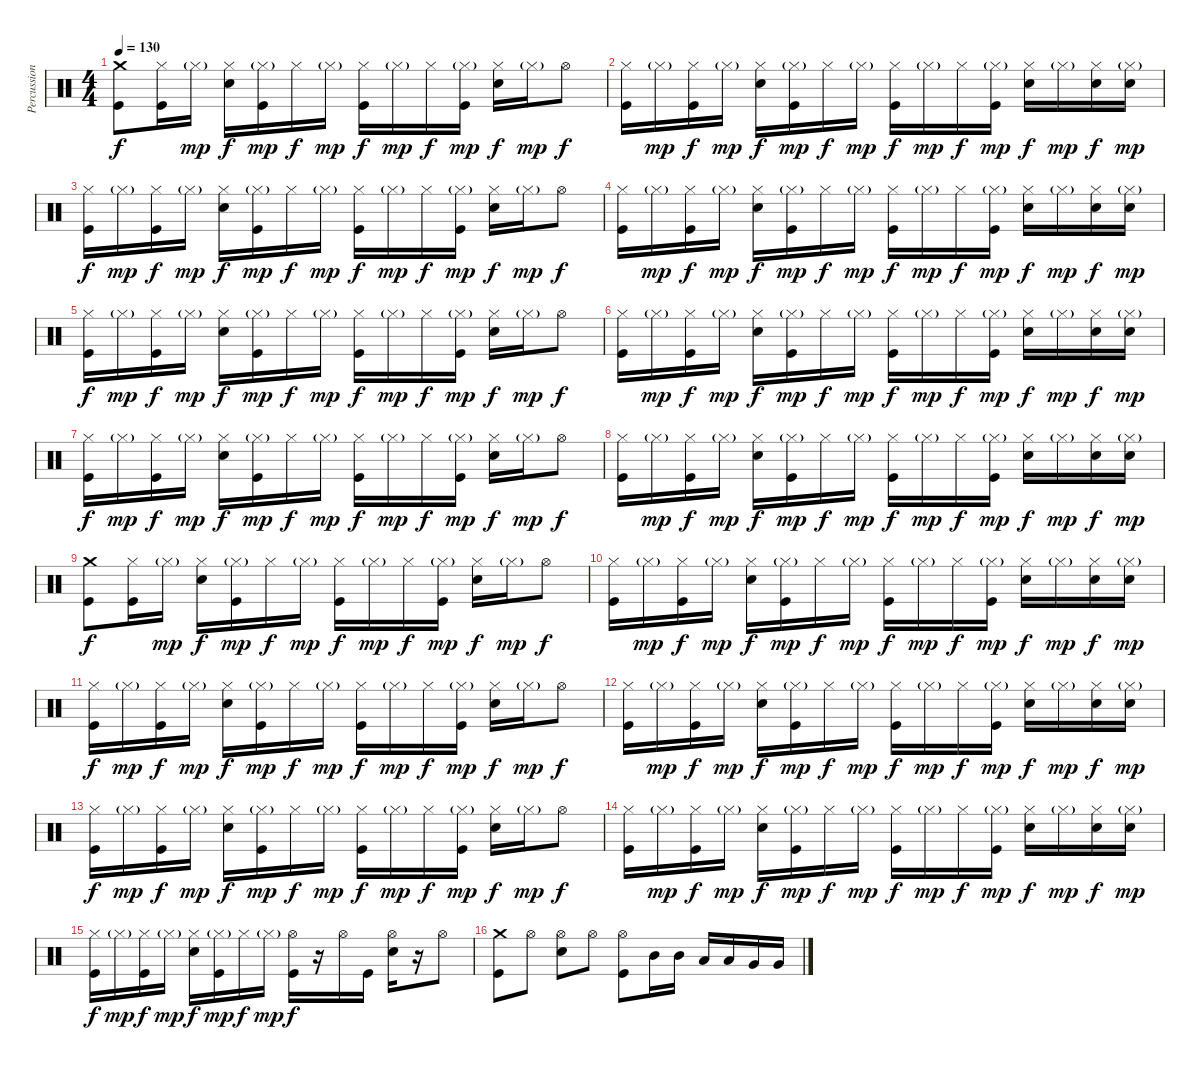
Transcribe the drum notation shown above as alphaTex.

\track ("Percussion" "Percussion") {instrument percussion}
\staff {score}
\articulation defaults
\ts (4 4)
\tempo 130
\clef neutral
\ks c
("Crash medium (hit)" "Kick (hit)").8{dy f} ("Hi-Hat (closed)" "Kick (hit)").16 "Hi-Hat (closed)"{g}.16{dy mp} ("Hi-Hat (closed)" "Electric Snare (hit)").16{dy f} ("Hi-Hat (closed)"{g} "Kick (hit)").16{dy mp} "Hi-Hat (closed)".16{dy f} "Hi-Hat (closed)"{g}.16{dy mp} ("Hi-Hat (closed)" "Kick (hit)").16{dy f} "Hi-Hat (closed)"{g}.16{dy mp} "Hi-Hat (closed)".16{dy f} ("Hi-Hat (closed)"{g} "Kick (hit)").16{dy mp} ("Hi-Hat (closed)" "Electric Snare (hit)").16{dy f} "Hi-Hat (closed)"{g}.16{dy mp} "Hi-Hat (open)".8{dy f} |
("Hi-Hat (closed)" "Kick (hit)").16 "Hi-Hat (closed)"{g}.16{dy mp} ("Hi-Hat (closed)" "Kick (hit)").16{dy f} "Hi-Hat (closed)"{g}.16{dy mp} ("Hi-Hat (closed)" "Electric Snare (hit)").16{dy f} ("Hi-Hat (closed)"{g} "Kick (hit)").16{dy mp} "Hi-Hat (closed)".16{dy f} "Hi-Hat (closed)"{g}.16{dy mp} ("Hi-Hat (closed)" "Kick (hit)").16{dy f} "Hi-Hat (closed)"{g}.16{dy mp} "Hi-Hat (closed)".16{dy f} ("Hi-Hat (closed)"{g} "Kick (hit)").16{dy mp} ("Hi-Hat (closed)" "Electric Snare (hit)").16{dy f} "Hi-Hat (closed)"{g}.16{dy mp} ("Hi-Hat (closed)" "Electric Snare (hit)").16{dy f} ("Hi-Hat (closed)"{g} "Electric Snare (hit)").16{dy mp} |
("Hi-Hat (closed)" "Kick (hit)").16{dy f} "Hi-Hat (closed)"{g}.16{dy mp} ("Hi-Hat (closed)" "Kick (hit)").16{dy f} "Hi-Hat (closed)"{g}.16{dy mp} ("Hi-Hat (closed)" "Electric Snare (hit)").16{dy f} ("Hi-Hat (closed)"{g} "Kick (hit)").16{dy mp} "Hi-Hat (closed)".16{dy f} "Hi-Hat (closed)"{g}.16{dy mp} ("Hi-Hat (closed)" "Kick (hit)").16{dy f} "Hi-Hat (closed)"{g}.16{dy mp} "Hi-Hat (closed)".16{dy f} ("Hi-Hat (closed)"{g} "Kick (hit)").16{dy mp} ("Hi-Hat (closed)" "Electric Snare (hit)").16{dy f} "Hi-Hat (closed)"{g}.16{dy mp} "Hi-Hat (open)".8{dy f} |
("Hi-Hat (closed)" "Kick (hit)").16 "Hi-Hat (closed)"{g}.16{dy mp} ("Hi-Hat (closed)" "Kick (hit)").16{dy f} "Hi-Hat (closed)"{g}.16{dy mp} ("Hi-Hat (closed)" "Electric Snare (hit)").16{dy f} ("Hi-Hat (closed)"{g} "Kick (hit)").16{dy mp} "Hi-Hat (closed)".16{dy f} "Hi-Hat (closed)"{g}.16{dy mp} ("Hi-Hat (closed)" "Kick (hit)").16{dy f} "Hi-Hat (closed)"{g}.16{dy mp} "Hi-Hat (closed)".16{dy f} ("Hi-Hat (closed)"{g} "Kick (hit)").16{dy mp} ("Hi-Hat (closed)" "Electric Snare (hit)").16{dy f} "Hi-Hat (closed)"{g}.16{dy mp} ("Hi-Hat (closed)" "Electric Snare (hit)").16{dy f} ("Hi-Hat (closed)"{g} "Electric Snare (hit)").16{dy mp} |
("Hi-Hat (closed)" "Kick (hit)").16{dy f} "Hi-Hat (closed)"{g}.16{dy mp} ("Hi-Hat (closed)" "Kick (hit)").16{dy f} "Hi-Hat (closed)"{g}.16{dy mp} ("Hi-Hat (closed)" "Electric Snare (hit)").16{dy f} ("Hi-Hat (closed)"{g} "Kick (hit)").16{dy mp} "Hi-Hat (closed)".16{dy f} "Hi-Hat (closed)"{g}.16{dy mp} ("Hi-Hat (closed)" "Kick (hit)").16{dy f} "Hi-Hat (closed)"{g}.16{dy mp} "Hi-Hat (closed)".16{dy f} ("Hi-Hat (closed)"{g} "Kick (hit)").16{dy mp} ("Hi-Hat (closed)" "Electric Snare (hit)").16{dy f} "Hi-Hat (closed)"{g}.16{dy mp} "Hi-Hat (open)".8{dy f} |
("Hi-Hat (closed)" "Kick (hit)").16 "Hi-Hat (closed)"{g}.16{dy mp} ("Hi-Hat (closed)" "Kick (hit)").16{dy f} "Hi-Hat (closed)"{g}.16{dy mp} ("Hi-Hat (closed)" "Electric Snare (hit)").16{dy f} ("Hi-Hat (closed)"{g} "Kick (hit)").16{dy mp} "Hi-Hat (closed)".16{dy f} "Hi-Hat (closed)"{g}.16{dy mp} ("Hi-Hat (closed)" "Kick (hit)").16{dy f} "Hi-Hat (closed)"{g}.16{dy mp} "Hi-Hat (closed)".16{dy f} ("Hi-Hat (closed)"{g} "Kick (hit)").16{dy mp} ("Hi-Hat (closed)" "Electric Snare (hit)").16{dy f} "Hi-Hat (closed)"{g}.16{dy mp} ("Hi-Hat (closed)" "Electric Snare (hit)").16{dy f} ("Hi-Hat (closed)"{g} "Electric Snare (hit)").16{dy mp} |
("Hi-Hat (closed)" "Kick (hit)").16{dy f} "Hi-Hat (closed)"{g}.16{dy mp} ("Hi-Hat (closed)" "Kick (hit)").16{dy f} "Hi-Hat (closed)"{g}.16{dy mp} ("Hi-Hat (closed)" "Electric Snare (hit)").16{dy f} ("Hi-Hat (closed)"{g} "Kick (hit)").16{dy mp} "Hi-Hat (closed)".16{dy f} "Hi-Hat (closed)"{g}.16{dy mp} ("Hi-Hat (closed)" "Kick (hit)").16{dy f} "Hi-Hat (closed)"{g}.16{dy mp} "Hi-Hat (closed)".16{dy f} ("Hi-Hat (closed)"{g} "Kick (hit)").16{dy mp} ("Hi-Hat (closed)" "Electric Snare (hit)").16{dy f} "Hi-Hat (closed)"{g}.16{dy mp} "Hi-Hat (open)".8{dy f} |
("Hi-Hat (closed)" "Kick (hit)").16 "Hi-Hat (closed)"{g}.16{dy mp} ("Hi-Hat (closed)" "Kick (hit)").16{dy f} "Hi-Hat (closed)"{g}.16{dy mp} ("Hi-Hat (closed)" "Electric Snare (hit)").16{dy f} ("Hi-Hat (closed)"{g} "Kick (hit)").16{dy mp} "Hi-Hat (closed)".16{dy f} "Hi-Hat (closed)"{g}.16{dy mp} ("Hi-Hat (closed)" "Kick (hit)").16{dy f} "Hi-Hat (closed)"{g}.16{dy mp} "Hi-Hat (closed)".16{dy f} ("Hi-Hat (closed)"{g} "Kick (hit)").16{dy mp} ("Hi-Hat (closed)" "Electric Snare (hit)").16{dy f} "Hi-Hat (closed)"{g}.16{dy mp} ("Hi-Hat (closed)" "Electric Snare (hit)").16{dy f} ("Hi-Hat (closed)"{g} "Electric Snare (hit)").16{dy mp} |
("Crash medium (hit)" "Kick (hit)").8{dy f} ("Hi-Hat (closed)" "Kick (hit)").16 "Hi-Hat (closed)"{g}.16{dy mp} ("Hi-Hat (closed)" "Electric Snare (hit)").16{dy f} ("Hi-Hat (closed)"{g} "Kick (hit)").16{dy mp} "Hi-Hat (closed)".16{dy f} "Hi-Hat (closed)"{g}.16{dy mp} ("Hi-Hat (closed)" "Kick (hit)").16{dy f} "Hi-Hat (closed)"{g}.16{dy mp} "Hi-Hat (closed)".16{dy f} ("Hi-Hat (closed)"{g} "Kick (hit)").16{dy mp} ("Hi-Hat (closed)" "Electric Snare (hit)").16{dy f} "Hi-Hat (closed)"{g}.16{dy mp} "Hi-Hat (open)".8{dy f} |
("Hi-Hat (closed)" "Kick (hit)").16 "Hi-Hat (closed)"{g}.16{dy mp} ("Hi-Hat (closed)" "Kick (hit)").16{dy f} "Hi-Hat (closed)"{g}.16{dy mp} ("Hi-Hat (closed)" "Electric Snare (hit)").16{dy f} ("Hi-Hat (closed)"{g} "Kick (hit)").16{dy mp} "Hi-Hat (closed)".16{dy f} "Hi-Hat (closed)"{g}.16{dy mp} ("Hi-Hat (closed)" "Kick (hit)").16{dy f} "Hi-Hat (closed)"{g}.16{dy mp} "Hi-Hat (closed)".16{dy f} ("Hi-Hat (closed)"{g} "Kick (hit)").16{dy mp} ("Hi-Hat (closed)" "Electric Snare (hit)").16{dy f} "Hi-Hat (closed)"{g}.16{dy mp} ("Hi-Hat (closed)" "Electric Snare (hit)").16{dy f} ("Hi-Hat (closed)"{g} "Electric Snare (hit)").16{dy mp} |
("Hi-Hat (closed)" "Kick (hit)").16{dy f} "Hi-Hat (closed)"{g}.16{dy mp} ("Hi-Hat (closed)" "Kick (hit)").16{dy f} "Hi-Hat (closed)"{g}.16{dy mp} ("Hi-Hat (closed)" "Electric Snare (hit)").16{dy f} ("Hi-Hat (closed)"{g} "Kick (hit)").16{dy mp} "Hi-Hat (closed)".16{dy f} "Hi-Hat (closed)"{g}.16{dy mp} ("Hi-Hat (closed)" "Kick (hit)").16{dy f} "Hi-Hat (closed)"{g}.16{dy mp} "Hi-Hat (closed)".16{dy f} ("Hi-Hat (closed)"{g} "Kick (hit)").16{dy mp} ("Hi-Hat (closed)" "Electric Snare (hit)").16{dy f} "Hi-Hat (closed)"{g}.16{dy mp} "Hi-Hat (open)".8{dy f} |
("Hi-Hat (closed)" "Kick (hit)").16 "Hi-Hat (closed)"{g}.16{dy mp} ("Hi-Hat (closed)" "Kick (hit)").16{dy f} "Hi-Hat (closed)"{g}.16{dy mp} ("Hi-Hat (closed)" "Electric Snare (hit)").16{dy f} ("Hi-Hat (closed)"{g} "Kick (hit)").16{dy mp} "Hi-Hat (closed)".16{dy f} "Hi-Hat (closed)"{g}.16{dy mp} ("Hi-Hat (closed)" "Kick (hit)").16{dy f} "Hi-Hat (closed)"{g}.16{dy mp} "Hi-Hat (closed)".16{dy f} ("Hi-Hat (closed)"{g} "Kick (hit)").16{dy mp} ("Hi-Hat (closed)" "Electric Snare (hit)").16{dy f} "Hi-Hat (closed)"{g}.16{dy mp} ("Hi-Hat (closed)" "Electric Snare (hit)").16{dy f} ("Hi-Hat (closed)"{g} "Electric Snare (hit)").16{dy mp} |
("Hi-Hat (closed)" "Kick (hit)").16{dy f} "Hi-Hat (closed)"{g}.16{dy mp} ("Hi-Hat (closed)" "Kick (hit)").16{dy f} "Hi-Hat (closed)"{g}.16{dy mp} ("Hi-Hat (closed)" "Electric Snare (hit)").16{dy f} ("Hi-Hat (closed)"{g} "Kick (hit)").16{dy mp} "Hi-Hat (closed)".16{dy f} "Hi-Hat (closed)"{g}.16{dy mp} ("Hi-Hat (closed)" "Kick (hit)").16{dy f} "Hi-Hat (closed)"{g}.16{dy mp} "Hi-Hat (closed)".16{dy f} ("Hi-Hat (closed)"{g} "Kick (hit)").16{dy mp} ("Hi-Hat (closed)" "Electric Snare (hit)").16{dy f} "Hi-Hat (closed)"{g}.16{dy mp} "Hi-Hat (open)".8{dy f} |
("Hi-Hat (closed)" "Kick (hit)").16 "Hi-Hat (closed)"{g}.16{dy mp} ("Hi-Hat (closed)" "Kick (hit)").16{dy f} "Hi-Hat (closed)"{g}.16{dy mp} ("Hi-Hat (closed)" "Electric Snare (hit)").16{dy f} ("Hi-Hat (closed)"{g} "Kick (hit)").16{dy mp} "Hi-Hat (closed)".16{dy f} "Hi-Hat (closed)"{g}.16{dy mp} ("Hi-Hat (closed)" "Kick (hit)").16{dy f} "Hi-Hat (closed)"{g}.16{dy mp} "Hi-Hat (closed)".16{dy f} ("Hi-Hat (closed)"{g} "Kick (hit)").16{dy mp} ("Hi-Hat (closed)" "Electric Snare (hit)").16{dy f} "Hi-Hat (closed)"{g}.16{dy mp} ("Hi-Hat (closed)" "Electric Snare (hit)").16{dy f} ("Hi-Hat (closed)"{g} "Electric Snare (hit)").16{dy mp} |
("Hi-Hat (closed)" "Kick (hit)").16{dy f} "Hi-Hat (closed)"{g}.16{dy mp} ("Hi-Hat (closed)" "Kick (hit)").16{dy f} "Hi-Hat (closed)"{g}.16{dy mp} ("Hi-Hat (closed)" "Electric Snare (hit)").16{dy f} ("Hi-Hat (closed)"{g} "Kick (hit)").16{dy mp} "Hi-Hat (closed)".16{dy f} "Hi-Hat (closed)"{g}.16{dy mp} ("Hi-Hat (open)" "Kick (hit)").16{dy f} r.16 "Hi-Hat (open)".16 "Kick (hit)".16 ("Hi-Hat (open)" "Electric Snare (hit)").16 r.16 "Hi-Hat (open)".8 |
("Crash medium (hit)" "Kick (hit)").8 "Hi-Hat (open)".8 ("Hi-Hat (open)" "Electric Snare (hit)").8 "Hi-Hat (open)".8 ("Hi-Hat (open)" "Kick (hit)").8 "Mid Tom (hit)".16 "Mid Tom (hit)".16 "Low Tom (hit)".16 "Low Tom (hit)".16 "Very Low Tom (hit)".16 "Very Low Tom (hit)".16
